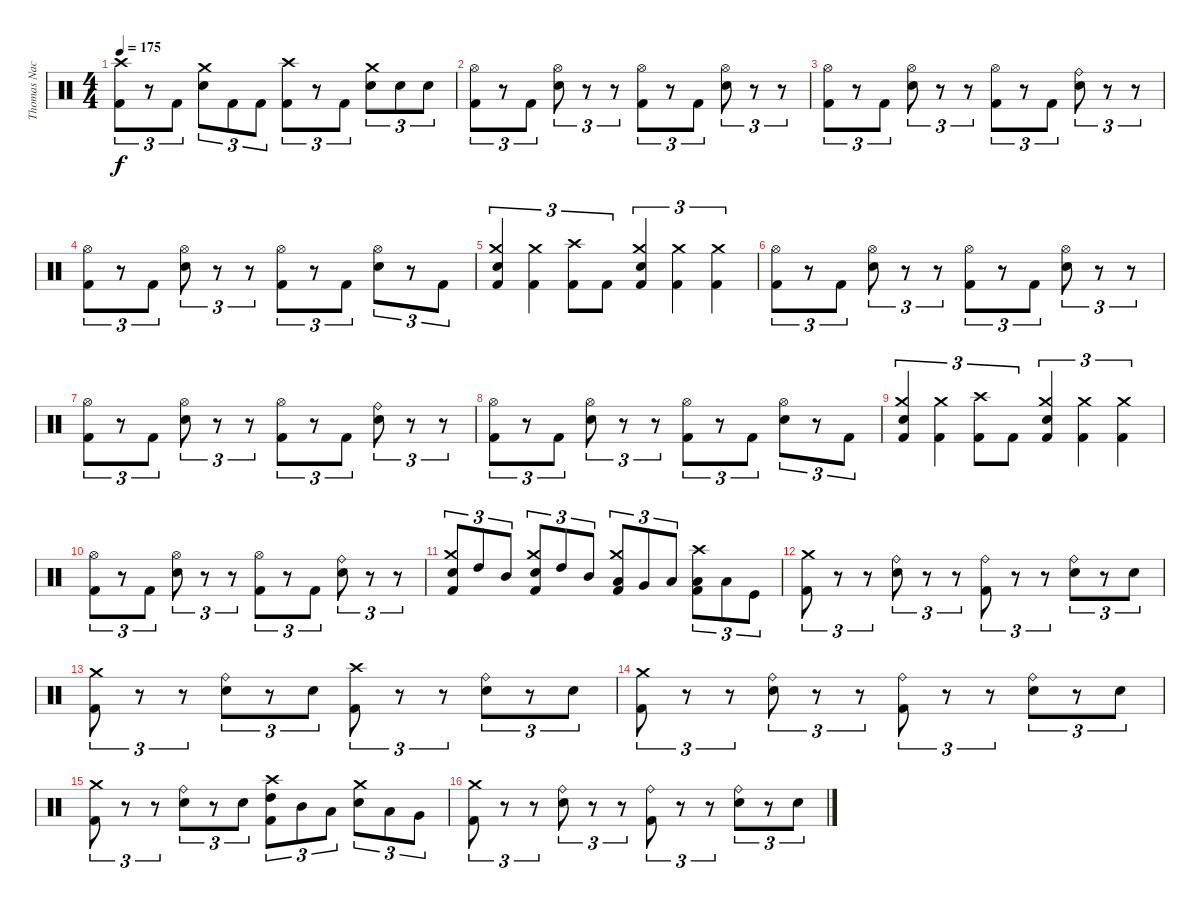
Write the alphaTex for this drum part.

\track ("Thomas Nack" "Thomas Nac") {instrument percussion}
\staff {score}
\articulation defaults
\ts (4 4)
\tempo 175
\clef neutral
\ks c
("Crash high (hit)" "Kick (hit) 2").8{tu (3 2) dy f} r.8{tu (3 2)} "Kick (hit) 2".8{tu (3 2)} ("Crash medium (hit)" "Electric Snare (hit)").8{tu (3 2)} "Kick (hit) 2".8{tu (3 2)} "Kick (hit) 2".8{tu (3 2)} ("Crash high (hit)" "Kick (hit) 2").8{tu (3 2)} r.8{tu (3 2)} "Kick (hit) 2".8{tu (3 2)} ("Crash medium (hit)" "Electric Snare (hit)").8{tu (3 2)} "Electric Snare (hit)".8{tu (3 2)} "Electric Snare (hit)".8{tu (3 2)} |
("Hi-Hat (open)" "Kick (hit) 2").8{tu (3 2)} r.8{tu (3 2)} "Kick (hit) 2".8{tu (3 2)} ("Hi-Hat (open)" "Electric Snare (hit)").8{tu (3 2)} r.8{tu (3 2)} r.8{tu (3 2)} ("Hi-Hat (open)" "Kick (hit) 2").8{tu (3 2)} r.8{tu (3 2)} "Kick (hit) 2".8{tu (3 2)} ("Hi-Hat (open)" "Electric Snare (hit)").8{tu (3 2)} r.8{tu (3 2)} r.8{tu (3 2)} |
("Hi-Hat (open)" "Kick (hit) 2").8{tu (3 2)} r.8{tu (3 2)} "Kick (hit) 2".8{tu (3 2)} ("Hi-Hat (open)" "Electric Snare (hit)").8{tu (3 2)} r.8{tu (3 2)} r.8{tu (3 2)} ("Hi-Hat (open)" "Kick (hit) 2").8{tu (3 2)} r.8{tu (3 2)} "Kick (hit) 2".8{tu (3 2)} ("Ride (bell)" "Electric Snare (hit)").8{tu (3 2)} r.8{tu (3 2)} r.8{tu (3 2)} |
("Hi-Hat (open)" "Kick (hit) 2").8{tu (3 2)} r.8{tu (3 2)} "Kick (hit) 2".8{tu (3 2)} ("Hi-Hat (open)" "Electric Snare (hit)").8{tu (3 2)} r.8{tu (3 2)} r.8{tu (3 2)} ("Hi-Hat (open)" "Kick (hit) 2").8{tu (3 2)} r.8{tu (3 2)} "Kick (hit) 2".8{tu (3 2)} ("Hi-Hat (open)" "Electric Snare (hit)").8{tu (3 2)} r.8{tu (3 2)} "Kick (hit) 2".8{tu (3 2)} |
("Crash medium (hit)" "Electric Snare (hit)" "Kick (hit) 2").4{tu (3 2)} ("Crash medium (hit)" "Kick (hit) 2").4{tu (3 2)} ("Crash high (hit)" "Kick (hit) 2").8{tu (3 2)} "Kick (hit) 2".8{tu (3 2)} ("Crash medium (hit)" "Electric Snare (hit)" "Kick (hit) 2").4{tu (3 2)} ("Crash medium (hit)" "Kick (hit) 2").4{tu (3 2)} ("Crash medium (hit)" "Kick (hit) 2").4{tu (3 2)} |
("Hi-Hat (open)" "Kick (hit) 2").8{tu (3 2)} r.8{tu (3 2)} "Kick (hit) 2".8{tu (3 2)} ("Hi-Hat (open)" "Electric Snare (hit)").8{tu (3 2)} r.8{tu (3 2)} r.8{tu (3 2)} ("Hi-Hat (open)" "Kick (hit) 2").8{tu (3 2)} r.8{tu (3 2)} "Kick (hit) 2".8{tu (3 2)} ("Hi-Hat (open)" "Electric Snare (hit)").8{tu (3 2)} r.8{tu (3 2)} r.8{tu (3 2)} |
("Hi-Hat (open)" "Kick (hit) 2").8{tu (3 2)} r.8{tu (3 2)} "Kick (hit) 2".8{tu (3 2)} ("Hi-Hat (open)" "Electric Snare (hit)").8{tu (3 2)} r.8{tu (3 2)} r.8{tu (3 2)} ("Hi-Hat (open)" "Kick (hit) 2").8{tu (3 2)} r.8{tu (3 2)} "Kick (hit) 2".8{tu (3 2)} ("Ride (bell)" "Electric Snare (hit)").8{tu (3 2)} r.8{tu (3 2)} r.8{tu (3 2)} |
("Hi-Hat (open)" "Kick (hit) 2").8{tu (3 2)} r.8{tu (3 2)} "Kick (hit) 2".8{tu (3 2)} ("Hi-Hat (open)" "Electric Snare (hit)").8{tu (3 2)} r.8{tu (3 2)} r.8{tu (3 2)} ("Hi-Hat (open)" "Kick (hit) 2").8{tu (3 2)} r.8{tu (3 2)} "Kick (hit) 2".8{tu (3 2)} ("Hi-Hat (open)" "Electric Snare (hit)").8{tu (3 2)} r.8{tu (3 2)} "Kick (hit) 2".8{tu (3 2)} |
("Crash medium (hit)" "Electric Snare (hit)" "Kick (hit) 2").4{tu (3 2)} ("Crash medium (hit)" "Kick (hit) 2").4{tu (3 2)} ("Crash high (hit)" "Kick (hit) 2").8{tu (3 2)} "Kick (hit) 2".8{tu (3 2)} ("Crash medium (hit)" "Electric Snare (hit)" "Kick (hit) 2").4{tu (3 2)} ("Crash medium (hit)" "Kick (hit) 2").4{tu (3 2)} ("Crash medium (hit)" "Kick (hit) 2").4{tu (3 2)} |
("Hi-Hat (open)" "Kick (hit) 2").8{tu (3 2)} r.8{tu (3 2)} "Kick (hit) 2".8{tu (3 2)} ("Hi-Hat (open)" "Electric Snare (hit)").8{tu (3 2)} r.8{tu (3 2)} r.8{tu (3 2)} ("Hi-Hat (open)" "Kick (hit) 2").8{tu (3 2)} r.8{tu (3 2)} "Kick (hit) 2".8{tu (3 2)} ("Ride (bell)" "Electric Snare (hit)").8{tu (3 2)} r.8{tu (3 2)} r.8{tu (3 2)} |
("Crash medium (hit)" "Electric Snare (hit)" "Kick (hit) 2").8{tu (3 2)} "High Tom (hit)".8{tu (3 2)} "Mid Tom (hit)".8{tu (3 2)} ("Crash medium (hit)" "Electric Snare (hit)" "Kick (hit) 2").8{tu (3 2)} "High Tom (hit)".8{tu (3 2)} "Mid Tom (hit)".8{tu (3 2)} ("Crash medium (hit)" "Low Tom (hit)" "Kick (hit) 2").8{tu (3 2)} "Very Low Tom (hit)".8{tu (3 2)} "Low Floor Tom (hit)".8{tu (3 2)} ("Crash high (hit)" "Low Floor Tom (hit)" "Kick (hit) 2").8{tu (3 2)} "Low Floor Tom (hit)".8{tu (3 2)} "Kick (hit)".8{tu (3 2)} |
("Crash medium (hit)" "Kick (hit) 2").8{tu (3 2)} r.8{tu (3 2)} r.8{tu (3 2)} ("Ride (bell)" "Electric Snare (hit)").8{tu (3 2)} r.8{tu (3 2)} r.8{tu (3 2)} ("Ride (bell)" "Kick (hit) 2").8{tu (3 2)} r.8{tu (3 2)} r.8{tu (3 2)} ("Ride (bell)" "Electric Snare (hit)").8{tu (3 2)} r.8{tu (3 2)} "Electric Snare (hit)".8{tu (3 2)} |
("Crash medium (hit)" "Kick (hit) 2").8{tu (3 2)} r.8{tu (3 2)} r.8{tu (3 2)} ("Ride (bell)" "Electric Snare (hit)").8{tu (3 2)} r.8{tu (3 2)} "Electric Snare (hit)".8{tu (3 2)} ("Crash high (hit)" "Kick (hit) 2").8{tu (3 2)} r.8{tu (3 2)} r.8{tu (3 2)} ("Ride (bell)" "Electric Snare (hit)").8{tu (3 2)} r.8{tu (3 2)} "Electric Snare (hit)".8{tu (3 2)} |
("Crash medium (hit)" "Kick (hit) 2").8{tu (3 2)} r.8{tu (3 2)} r.8{tu (3 2)} ("Ride (bell)" "Electric Snare (hit)").8{tu (3 2)} r.8{tu (3 2)} r.8{tu (3 2)} ("Ride (bell)" "Kick (hit) 2").8{tu (3 2)} r.8{tu (3 2)} r.8{tu (3 2)} ("Ride (bell)" "Electric Snare (hit)").8{tu (3 2)} r.8{tu (3 2)} "Electric Snare (hit)".8{tu (3 2)} |
("Crash medium (hit)" "Kick (hit) 2").8{tu (3 2)} r.8{tu (3 2)} r.8{tu (3 2)} ("Ride (bell)" "Electric Snare (hit)").8{tu (3 2)} r.8{tu (3 2)} "Electric Snare (hit)".8{tu (3 2)} ("Crash high (hit)" "High Tom (hit)" "Kick (hit) 2").8{tu (3 2)} "Mid Tom (hit)".8{tu (3 2)} "Low Tom (hit)".8{tu (3 2)} ("Crash medium (hit)" "Electric Snare (hit)").8{tu (3 2)} "Low Tom (hit)".8{tu (3 2)} "Very Low Tom (hit)".8{tu (3 2)} |
("Crash medium (hit)" "Kick (hit) 2").8{tu (3 2)} r.8{tu (3 2)} r.8{tu (3 2)} ("Ride (bell)" "Electric Snare (hit)").8{tu (3 2)} r.8{tu (3 2)} r.8{tu (3 2)} ("Ride (bell)" "Kick (hit) 2").8{tu (3 2)} r.8{tu (3 2)} r.8{tu (3 2)} ("Ride (bell)" "Electric Snare (hit)").8{tu (3 2)} r.8{tu (3 2)} "Electric Snare (hit)".8{tu (3 2)}
